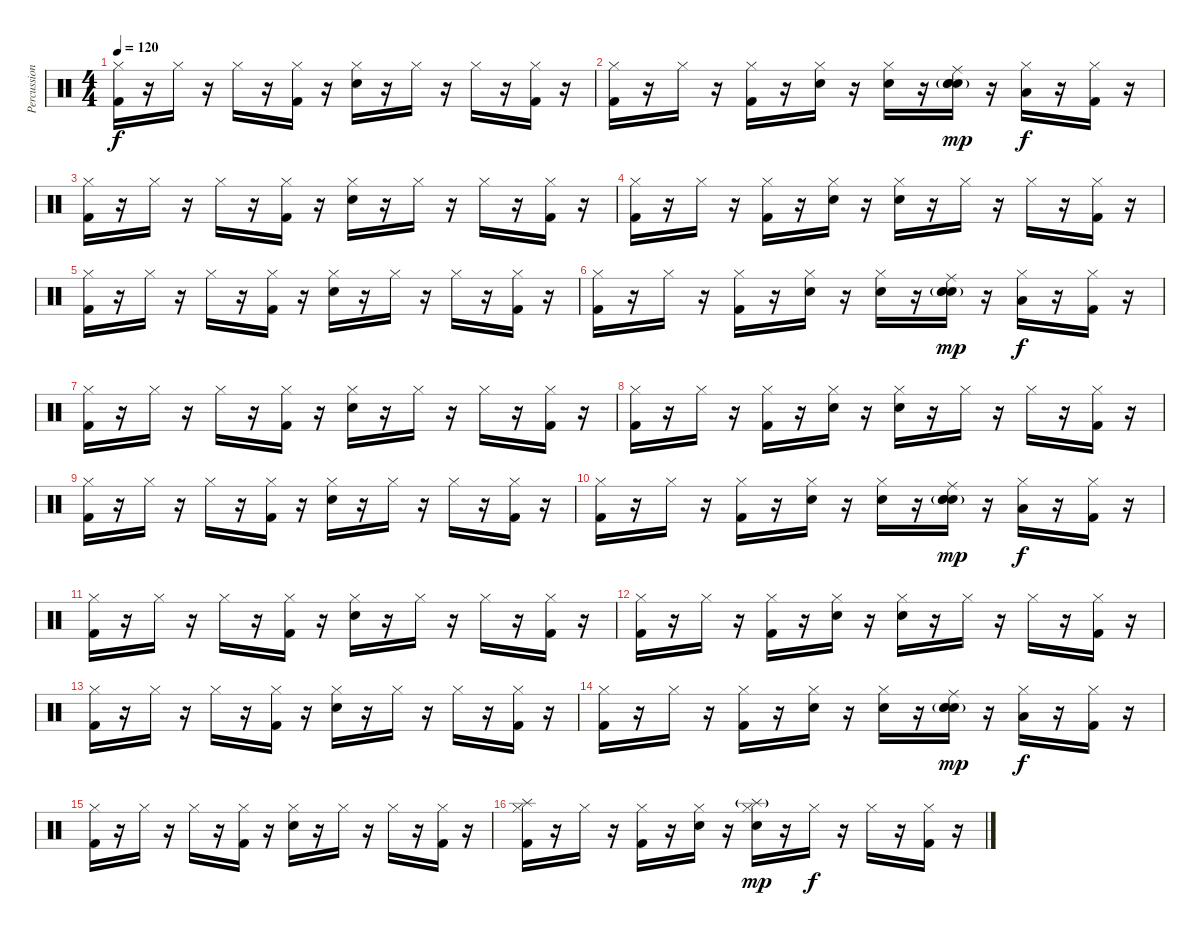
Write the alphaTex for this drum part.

\track ("Percussion" "Percussion") {instrument percussion}
\staff {score}
\articulation defaults
\ts (4 4)
\tempo 120
\clef neutral
\ks c
("Hi-Hat (closed)" "Kick (hit) 2").16{dy f} r.16 "Hi-Hat (closed)".16 r.16 "Hi-Hat (closed)".16 r.16 ("Hi-Hat (closed)" "Kick (hit) 2").16 r.16 ("Hi-Hat (closed)" "Snare (hit) 2").16 r.16 "Hi-Hat (closed)".16 r.16 "Hi-Hat (closed)".16 r.16 ("Hi-Hat (closed)" "Kick (hit) 2").16 r.16 |
("Hi-Hat (closed)" "Kick (hit) 2").16 r.16 "Hi-Hat (closed)".16 r.16 ("Hi-Hat (closed)" "Kick (hit) 2").16 r.16 ("Hi-Hat (closed)" "Snare (hit)").16 r.16 ("Hi-Hat (closed)" "Snare (hit) 2").16 r.16 ("Ride (middle)" "Snare (hit)"{g} "Electric Snare (hit)"{g} "Snare (hit) 2"{g}).16{dy mp} r.16 ("Hi-Hat (closed)" "Low Floor Tom (hit)").16{dy f} r.16 ("Hi-Hat (closed)" "Kick (hit) 2").16 r.16 |
("Hi-Hat (closed)" "Kick (hit) 2").16 r.16 "Hi-Hat (closed)".16 r.16 "Hi-Hat (closed)".16 r.16 ("Hi-Hat (closed)" "Kick (hit) 2").16 r.16 ("Hi-Hat (closed)" "Snare (hit) 2").16 r.16 "Hi-Hat (closed)".16 r.16 "Hi-Hat (closed)".16 r.16 ("Hi-Hat (closed)" "Kick (hit) 2").16 r.16 |
("Hi-Hat (closed)" "Kick (hit) 2").16 r.16 "Hi-Hat (closed)".16 r.16 ("Hi-Hat (closed)" "Kick (hit) 2").16 r.16 ("Hi-Hat (closed)" "Snare (hit)").16 r.16 ("Hi-Hat (closed)" "Snare (hit) 2").16 r.16 "Hi-Hat (closed)".16 r.16 "Hi-Hat (closed)".16 r.16 ("Hi-Hat (closed)" "Kick (hit) 2").16 r.16 |
("Hi-Hat (closed)" "Kick (hit) 2").16 r.16 "Hi-Hat (closed)".16 r.16 "Hi-Hat (closed)".16 r.16 ("Hi-Hat (closed)" "Kick (hit) 2").16 r.16 ("Hi-Hat (closed)" "Snare (hit) 2").16 r.16 "Hi-Hat (closed)".16 r.16 "Hi-Hat (closed)".16 r.16 ("Hi-Hat (closed)" "Kick (hit) 2").16 r.16 |
("Hi-Hat (closed)" "Kick (hit) 2").16 r.16 "Hi-Hat (closed)".16 r.16 ("Hi-Hat (closed)" "Kick (hit) 2").16 r.16 ("Hi-Hat (closed)" "Snare (hit)").16 r.16 ("Hi-Hat (closed)" "Snare (hit) 2").16 r.16 ("Ride (middle)" "Snare (hit)"{g} "Electric Snare (hit)"{g} "Snare (hit) 2"{g}).16{dy mp} r.16 ("Hi-Hat (closed)" "Low Floor Tom (hit)").16{dy f} r.16 ("Hi-Hat (closed)" "Kick (hit) 2").16 r.16 |
("Hi-Hat (closed)" "Kick (hit) 2").16 r.16 "Hi-Hat (closed)".16 r.16 "Hi-Hat (closed)".16 r.16 ("Hi-Hat (closed)" "Kick (hit) 2").16 r.16 ("Hi-Hat (closed)" "Snare (hit) 2").16 r.16 "Hi-Hat (closed)".16 r.16 "Hi-Hat (closed)".16 r.16 ("Hi-Hat (closed)" "Kick (hit) 2").16 r.16 |
("Hi-Hat (closed)" "Kick (hit) 2").16 r.16 "Hi-Hat (closed)".16 r.16 ("Hi-Hat (closed)" "Kick (hit) 2").16 r.16 ("Hi-Hat (closed)" "Snare (hit)").16 r.16 ("Hi-Hat (closed)" "Snare (hit) 2").16 r.16 "Hi-Hat (closed)".16 r.16 "Hi-Hat (closed)".16 r.16 ("Hi-Hat (closed)" "Kick (hit) 2").16 r.16 |
("Hi-Hat (closed)" "Kick (hit) 2").16 r.16 "Hi-Hat (closed)".16 r.16 "Hi-Hat (closed)".16 r.16 ("Hi-Hat (closed)" "Kick (hit) 2").16 r.16 ("Hi-Hat (closed)" "Snare (hit) 2").16 r.16 "Hi-Hat (closed)".16 r.16 "Hi-Hat (closed)".16 r.16 ("Hi-Hat (closed)" "Kick (hit) 2").16 r.16 |
("Hi-Hat (closed)" "Kick (hit) 2").16 r.16 "Hi-Hat (closed)".16 r.16 ("Hi-Hat (closed)" "Kick (hit) 2").16 r.16 ("Hi-Hat (closed)" "Snare (hit)").16 r.16 ("Hi-Hat (closed)" "Snare (hit) 2").16 r.16 ("Ride (middle)" "Snare (hit)"{g} "Electric Snare (hit)"{g} "Snare (hit) 2"{g}).16{dy mp} r.16 ("Hi-Hat (closed)" "Low Floor Tom (hit)").16{dy f} r.16 ("Hi-Hat (closed)" "Kick (hit) 2").16 r.16 |
("Hi-Hat (closed)" "Kick (hit) 2").16 r.16 "Hi-Hat (closed)".16 r.16 "Hi-Hat (closed)".16 r.16 ("Hi-Hat (closed)" "Kick (hit) 2").16 r.16 ("Hi-Hat (closed)" "Snare (hit) 2").16 r.16 "Hi-Hat (closed)".16 r.16 "Hi-Hat (closed)".16 r.16 ("Hi-Hat (closed)" "Kick (hit) 2").16 r.16 |
("Hi-Hat (closed)" "Kick (hit) 2").16 r.16 "Hi-Hat (closed)".16 r.16 ("Hi-Hat (closed)" "Kick (hit) 2").16 r.16 ("Hi-Hat (closed)" "Snare (hit)").16 r.16 ("Hi-Hat (closed)" "Snare (hit) 2").16 r.16 "Hi-Hat (closed)".16 r.16 "Hi-Hat (closed)".16 r.16 ("Hi-Hat (closed)" "Kick (hit) 2").16 r.16 |
("Hi-Hat (closed)" "Kick (hit) 2").16 r.16 "Hi-Hat (closed)".16 r.16 "Hi-Hat (closed)".16 r.16 ("Hi-Hat (closed)" "Kick (hit) 2").16 r.16 ("Hi-Hat (closed)" "Snare (hit) 2").16 r.16 "Hi-Hat (closed)".16 r.16 "Hi-Hat (closed)".16 r.16 ("Hi-Hat (closed)" "Kick (hit) 2").16 r.16 |
("Hi-Hat (closed)" "Kick (hit) 2").16 r.16 "Hi-Hat (closed)".16 r.16 ("Hi-Hat (closed)" "Kick (hit) 2").16 r.16 ("Hi-Hat (closed)" "Snare (hit)").16 r.16 ("Hi-Hat (closed)" "Snare (hit) 2").16 r.16 ("Ride (middle)" "Snare (hit)"{g} "Electric Snare (hit)"{g} "Snare (hit) 2"{g}).16{dy mp} r.16 ("Hi-Hat (closed)" "Low Floor Tom (hit)").16{dy f} r.16 ("Hi-Hat (closed)" "Kick (hit) 2").16 r.16 |
("Hi-Hat (closed)" "Kick (hit) 2").16 r.16 "Hi-Hat (closed)".16 r.16 "Hi-Hat (closed)".16 r.16 ("Hi-Hat (closed)" "Kick (hit) 2").16 r.16 ("Hi-Hat (closed)" "Snare (hit) 2").16 r.16 "Hi-Hat (closed)".16 r.16 "Hi-Hat (closed)".16 r.16 ("Hi-Hat (closed)" "Kick (hit) 2").16 r.16 |
("Hi-Hat (closed)" "Splash (hit)" "Kick (hit) 2").16 r.16 "Hi-Hat (closed)".16 r.16 ("Hi-Hat (closed)" "Kick (hit) 2").16 r.16 ("Hi-Hat (closed)" "Snare (hit)").16 r.16 ("Hi-Hat (closed)" "Splash (hit)"{g} "Snare (hit) 2").16{dy mp} r.16 "Hi-Hat (closed)".16{dy f} r.16 "Hi-Hat (closed)".16 r.16 ("Hi-Hat (closed)" "Kick (hit) 2").16 r.16
